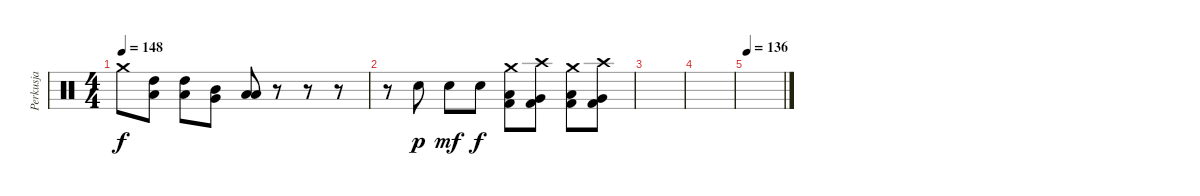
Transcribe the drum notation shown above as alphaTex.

\track ("Perkusja" "Perkusja") {instrument percussion}
\staff {score}
\articulation defaults
\ts (4 4)
\tempo 148
\clef neutral
\ks c "Crash medium (hit)".8{dy f}
("High Tom (hit)" "Low Tom (hit)").8 ("High Tom (hit)" "Low Tom (hit)").8 ("Mid Tom (hit)" "Very Low Tom (hit)").8 ("Low Tom (hit)" "Low Floor Tom (hit)").8 r.8 r.8 r.8 |
r.8 "Electric Snare (hit)".8{dy p} "Electric Snare (hit)".8{dy mf} "Electric Snare (hit)".8{dy f} ("Crash medium (hit)" "Low Tom (hit)" "Kick (hit) 2").8 ("Crash high (hit)" "Very Low Tom (hit)" "Kick (hit) 2").8 ("Crash medium (hit)" "Low Floor Tom (hit)" "Kick (hit) 2").8 ("Crash high (hit)" "Very Low Tom (hit)" "Kick (hit) 2").8 |
|
|
\tempo 136
